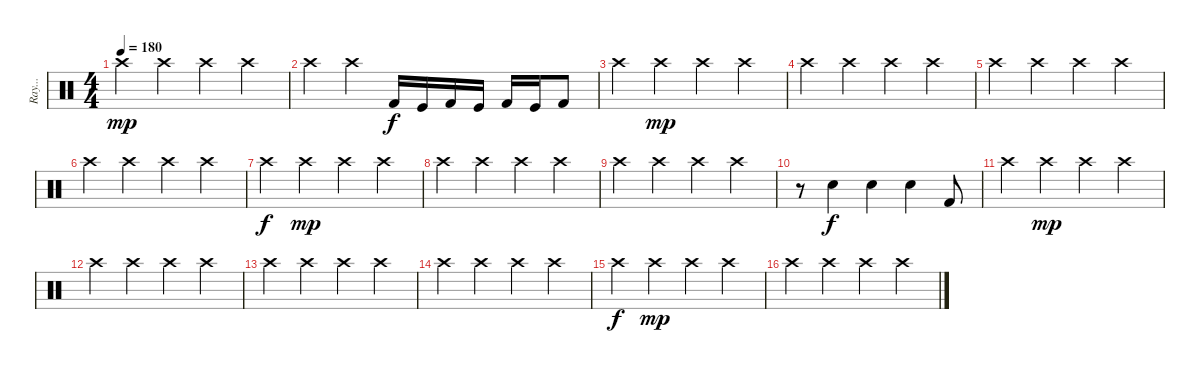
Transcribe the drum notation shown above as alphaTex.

\track ("Ray..." "Ray...") {instrument percussion}
\staff {score}
\articulation defaults
\ts (4 4)
\tempo 180
\clef neutral
\ks c "Crash high (hit)".4{dy mp} "Crash high (hit)".4 "Crash high (hit)".4 "Crash high (hit)".4
|
"Crash high (hit)".4 "Crash high (hit)".4 "Kick (hit) 2".16{dy f} "Kick (hit)".16 "Kick (hit) 2".16 "Kick (hit)".16 "Kick (hit) 2".16 "Kick (hit)".16 "Kick (hit) 2".8 |
"Crash high (hit)".4 "Crash high (hit)".4{dy mp} "Crash high (hit)".4 "Crash high (hit)".4 |
"Crash high (hit)".4 "Crash high (hit)".4 "Crash high (hit)".4 "Crash high (hit)".4 |
"Crash high (hit)".4 "Crash high (hit)".4 "Crash high (hit)".4 "Crash high (hit)".4 |
"Crash high (hit)".4 "Crash high (hit)".4 "Crash high (hit)".4 "Crash high (hit)".4 |
"Crash high (hit)".4{dy f} "Crash high (hit)".4{dy mp} "Crash high (hit)".4 "Crash high (hit)".4 |
"Crash high (hit)".4 "Crash high (hit)".4 "Crash high (hit)".4 "Crash high (hit)".4 |
"Crash high (hit)".4 "Crash high (hit)".4 "Crash high (hit)".4 "Crash high (hit)".4 |
r.8 "Snare (hit) 2".4{dy f} "Snare (hit) 2".4 "Snare (hit) 2".4 "Kick (hit) 2".8 |
"Crash high (hit)".4 "Crash high (hit)".4{dy mp} "Crash high (hit)".4 "Crash high (hit)".4 |
"Crash high (hit)".4 "Crash high (hit)".4 "Crash high (hit)".4 "Crash high (hit)".4 |
"Crash high (hit)".4 "Crash high (hit)".4 "Crash high (hit)".4 "Crash high (hit)".4 |
"Crash high (hit)".4 "Crash high (hit)".4 "Crash high (hit)".4 "Crash high (hit)".4 |
"Crash high (hit)".4{dy f} "Crash high (hit)".4{dy mp} "Crash high (hit)".4 "Crash high (hit)".4 |
"Crash high (hit)".4 "Crash high (hit)".4 "Crash high (hit)".4 "Crash high (hit)".4
